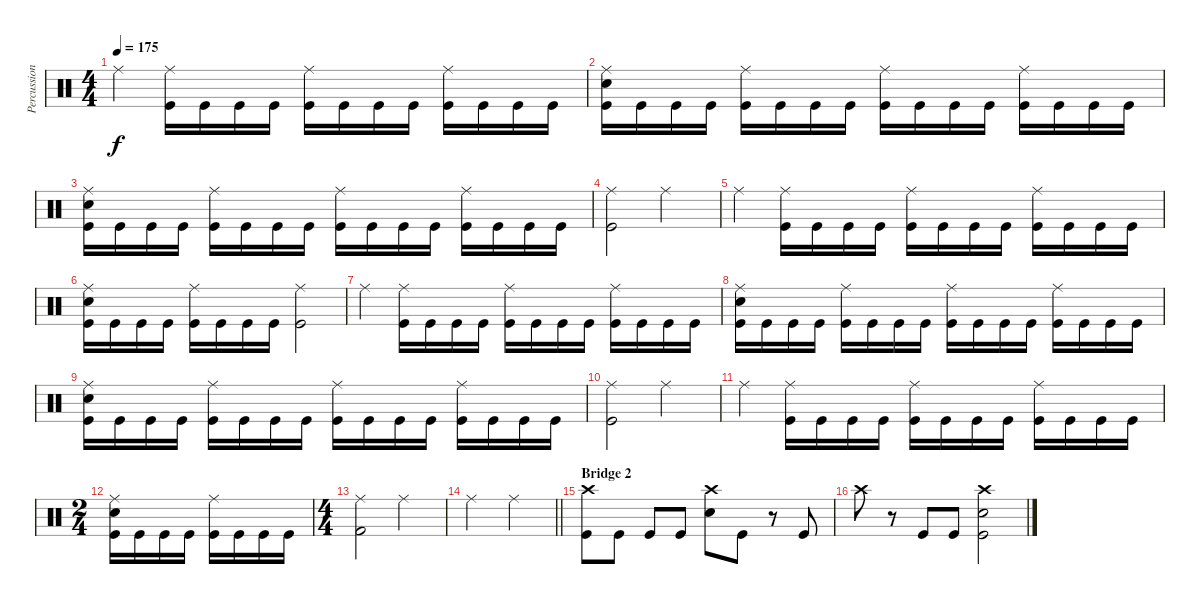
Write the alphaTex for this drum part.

\track ("Percussion" "Percussion") {instrument percussion}
\staff {score}
\articulation defaults
\ts (4 4)
\tempo 175
\clef neutral
\ks c "Ride (middle)".4{dy f}
("Ride (middle)" "Kick (hit)").16 "Kick (hit)".16 "Kick (hit)".16 "Kick (hit)".16 ("Ride (middle)" "Kick (hit)").16 "Kick (hit)".16 "Kick (hit)".16 "Kick (hit)".16 ("Ride (middle)" "Kick (hit)").16 "Kick (hit)".16 "Kick (hit)".16 "Kick (hit)".16 |
("Ride (middle)" "Electric Snare (hit)" "Kick (hit)").16 "Kick (hit)".16 "Kick (hit)".16 "Kick (hit)".16 ("Ride (middle)" "Kick (hit)").16 "Kick (hit)".16 "Kick (hit)".16 "Kick (hit)".16 ("Ride (middle)" "Kick (hit)").16 "Kick (hit)".16 "Kick (hit)".16 "Kick (hit)".16 ("Ride (middle)" "Kick (hit)").16 "Kick (hit)".16 "Kick (hit)".16 "Kick (hit)".16 |
("Ride (middle)" "Electric Snare (hit)" "Kick (hit)").16 "Kick (hit)".16 "Kick (hit)".16 "Kick (hit)".16 ("Ride (middle)" "Kick (hit)").16 "Kick (hit)".16 "Kick (hit)".16 "Kick (hit)".16 ("Ride (middle)" "Kick (hit)").16 "Kick (hit)".16 "Kick (hit)".16 "Kick (hit)".16 ("Ride (middle)" "Kick (hit)").16 "Kick (hit)".16 "Kick (hit)".16 "Kick (hit)".16 |
("Ride (middle)" "Kick (hit)").2 "Ride (middle)".2 |
"Ride (middle)".4 ("Ride (middle)" "Kick (hit)").16 "Kick (hit)".16 "Kick (hit)".16 "Kick (hit)".16 ("Ride (middle)" "Kick (hit)").16 "Kick (hit)".16 "Kick (hit)".16 "Kick (hit)".16 ("Ride (middle)" "Kick (hit)").16 "Kick (hit)".16 "Kick (hit)".16 "Kick (hit)".16 |
("Ride (middle)" "Electric Snare (hit)" "Kick (hit)").16 "Kick (hit)".16 "Kick (hit)".16 "Kick (hit)".16 ("Ride (middle)" "Kick (hit)").16 "Kick (hit)".16 "Kick (hit)".16 "Kick (hit)".16 ("Ride (middle)" "Kick (hit)").2 |
"Ride (middle)".4 ("Ride (middle)" "Kick (hit)").16 "Kick (hit)".16 "Kick (hit)".16 "Kick (hit)".16 ("Ride (middle)" "Kick (hit)").16 "Kick (hit)".16 "Kick (hit)".16 "Kick (hit)".16 ("Ride (middle)" "Kick (hit)").16 "Kick (hit)".16 "Kick (hit)".16 "Kick (hit)".16 |
("Ride (middle)" "Electric Snare (hit)" "Kick (hit)").16 "Kick (hit)".16 "Kick (hit)".16 "Kick (hit)".16 ("Ride (middle)" "Kick (hit)").16 "Kick (hit)".16 "Kick (hit)".16 "Kick (hit)".16 ("Ride (middle)" "Kick (hit)").16 "Kick (hit)".16 "Kick (hit)".16 "Kick (hit)".16 ("Ride (middle)" "Kick (hit)").16 "Kick (hit)".16 "Kick (hit)".16 "Kick (hit)".16 |
("Ride (middle)" "Electric Snare (hit)" "Kick (hit)").16 "Kick (hit)".16 "Kick (hit)".16 "Kick (hit)".16 ("Ride (middle)" "Kick (hit)").16 "Kick (hit)".16 "Kick (hit)".16 "Kick (hit)".16 ("Ride (middle)" "Kick (hit)").16 "Kick (hit)".16 "Kick (hit)".16 "Kick (hit)".16 ("Ride (middle)" "Kick (hit)").16 "Kick (hit)".16 "Kick (hit)".16 "Kick (hit)".16 |
("Ride (middle)" "Kick (hit)").2 "Ride (middle)".2 |
"Ride (middle)".4 ("Ride (middle)" "Kick (hit)").16 "Kick (hit)".16 "Kick (hit)".16 "Kick (hit)".16 ("Ride (middle)" "Kick (hit)").16 "Kick (hit)".16 "Kick (hit)".16 "Kick (hit)".16 ("Ride (middle)" "Kick (hit)").16 "Kick (hit)".16 "Kick (hit)".16 "Kick (hit)".16 |
\ts (2 4)
("Ride (middle)" "Electric Snare (hit)" "Kick (hit)").16 "Kick (hit)".16 "Kick (hit)".16 "Kick (hit)".16 ("Ride (middle)" "Kick (hit)").16 "Kick (hit)".16 "Kick (hit)".16 "Kick (hit)".16 |
\ts (4 4)
("Ride (middle)" "Kick (hit) 2").2 "Ride (middle)".2 |
\barLineRight lightlight "Ride (middle)".2 "Ride (middle)".2
|
\section ("" "Bridge 2")
("Crash high (hit)" "Kick (hit)").8 "Kick (hit)".8 "Kick (hit)".8 "Kick (hit)".8 ("Crash high (hit)" "Electric Snare (hit)").8 "Kick (hit)".8 r.8 "Kick (hit)".8 |
"Crash high (hit)".8 r.8 "Kick (hit)".8 "Kick (hit)".8 ("Crash high (hit)" "Electric Snare (hit)" "Kick (hit)").2
